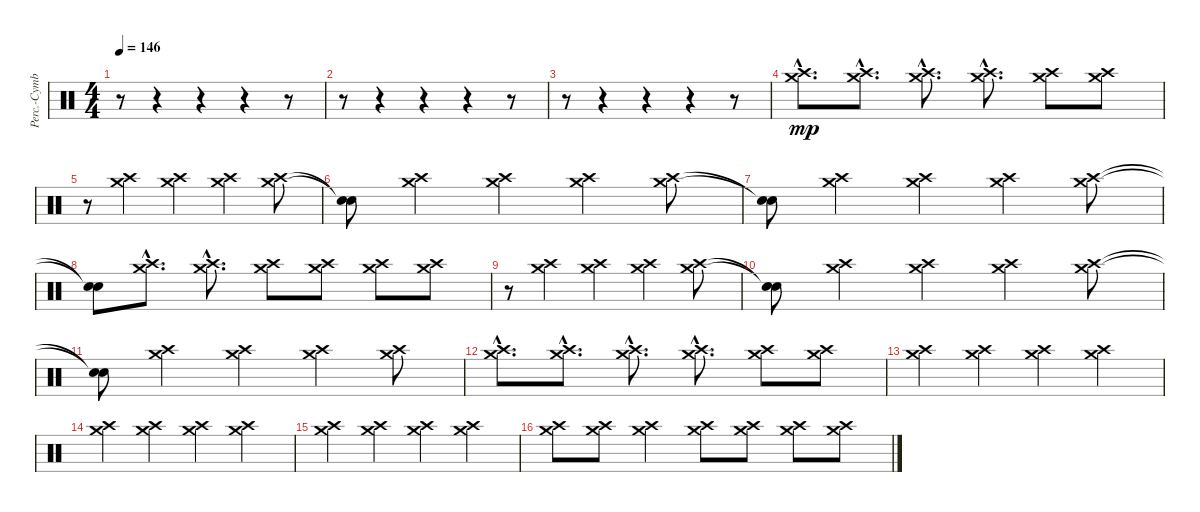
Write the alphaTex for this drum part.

\track ("Perc.-Cymbals" "Perc.-Cymb") {instrument percussion}
\staff {score}
\articulation defaults
\ts (4 4)
\tempo 146
\clef neutral
\ks c
r.8{dy mp} r.4 r.4 r.4 r.8 |
r.8 r.4 r.4 r.4 r.8 |
r.8 r.4 r.4 r.4 r.8 |
("Crash high (hit)"{hac} "Crash medium (hit)"{hac}).8{d} ("Crash high (hit)"{hac} "Crash medium (hit)"{hac}).8{d} ("Crash high (hit)"{hac} "Crash medium (hit)"{hac}).8{d} ("Crash high (hit)"{hac} "Crash medium (hit)"{hac}).8{d} ("Crash high (hit)" "Crash medium (hit)").8 ("Crash high (hit)" "Crash medium (hit)").8 |
r.8 ("Crash high (hit)" "Crash medium (hit)").4 ("Crash high (hit)" "Crash medium (hit)").4 ("Crash high (hit)" "Crash medium (hit)").4 ("Crash high (hit)" "Crash medium (hit)").8 |
("Snare (hit)"{t} "Snare (hit)"{t}).8 ("Crash high (hit)" "Crash medium (hit)").4 ("Crash high (hit)" "Crash medium (hit)").4 ("Crash high (hit)" "Crash medium (hit)").4 ("Crash high (hit)" "Crash medium (hit)").8 |
("Snare (hit)"{t} "Snare (hit)"{t}).8 ("Crash high (hit)" "Crash medium (hit)").4 ("Crash high (hit)" "Crash medium (hit)").4 ("Crash high (hit)" "Crash medium (hit)").4 ("Crash high (hit)" "Crash medium (hit)").8 |
("Snare (hit)"{t} "Snare (hit)"{t}).8 ("Crash high (hit)"{hac} "Crash medium (hit)"{hac}).8{d} ("Crash high (hit)"{hac} "Crash medium (hit)"{hac}).8{d} ("Crash high (hit)" "Crash medium (hit)").8 ("Crash high (hit)" "Crash medium (hit)").8 ("Crash high (hit)" "Crash medium (hit)").8 ("Crash high (hit)" "Crash medium (hit)").8 |
r.8 ("Crash high (hit)" "Crash medium (hit)").4 ("Crash high (hit)" "Crash medium (hit)").4 ("Crash high (hit)" "Crash medium (hit)").4 ("Crash high (hit)" "Crash medium (hit)").8 |
("Snare (hit)"{t} "Snare (hit)"{t}).8 ("Crash high (hit)" "Crash medium (hit)").4 ("Crash high (hit)" "Crash medium (hit)").4 ("Crash high (hit)" "Crash medium (hit)").4 ("Crash high (hit)" "Crash medium (hit)").8 |
("Snare (hit)"{t} "Snare (hit)"{t}).8 ("Crash high (hit)" "Crash medium (hit)").4 ("Crash high (hit)" "Crash medium (hit)").4 ("Crash high (hit)" "Crash medium (hit)").4 ("Crash high (hit)" "Crash medium (hit)").8 |
("Crash high (hit)"{hac} "Crash medium (hit)"{hac}).8{d} ("Crash high (hit)"{hac} "Crash medium (hit)"{hac}).8{d} ("Crash high (hit)"{hac} "Crash medium (hit)"{hac}).8{d} ("Crash high (hit)"{hac} "Crash medium (hit)"{hac}).8{d} ("Crash high (hit)" "Crash medium (hit)").8 ("Crash high (hit)" "Crash medium (hit)").8 |
("Crash high (hit)" "Crash medium (hit)").4 ("Crash high (hit)" "Crash medium (hit)").4 ("Crash high (hit)" "Crash medium (hit)").4 ("Crash high (hit)" "Crash medium (hit)").4 |
("Crash high (hit)" "Crash medium (hit)").4 ("Crash high (hit)" "Crash medium (hit)").4 ("Crash high (hit)" "Crash medium (hit)").4 ("Crash high (hit)" "Crash medium (hit)").4 |
("Crash high (hit)" "Crash medium (hit)").4 ("Crash high (hit)" "Crash medium (hit)").4 ("Crash high (hit)" "Crash medium (hit)").4 ("Crash high (hit)" "Crash medium (hit)").4 |
("Crash high (hit)" "Crash medium (hit)").8 ("Crash high (hit)" "Crash medium (hit)").8 ("Crash high (hit)" "Crash medium (hit)").4 ("Crash high (hit)" "Crash medium (hit)").8 ("Crash high (hit)" "Crash medium (hit)").8 ("Crash high (hit)" "Crash medium (hit)").8 ("Crash high (hit)" "Crash medium (hit)").8
